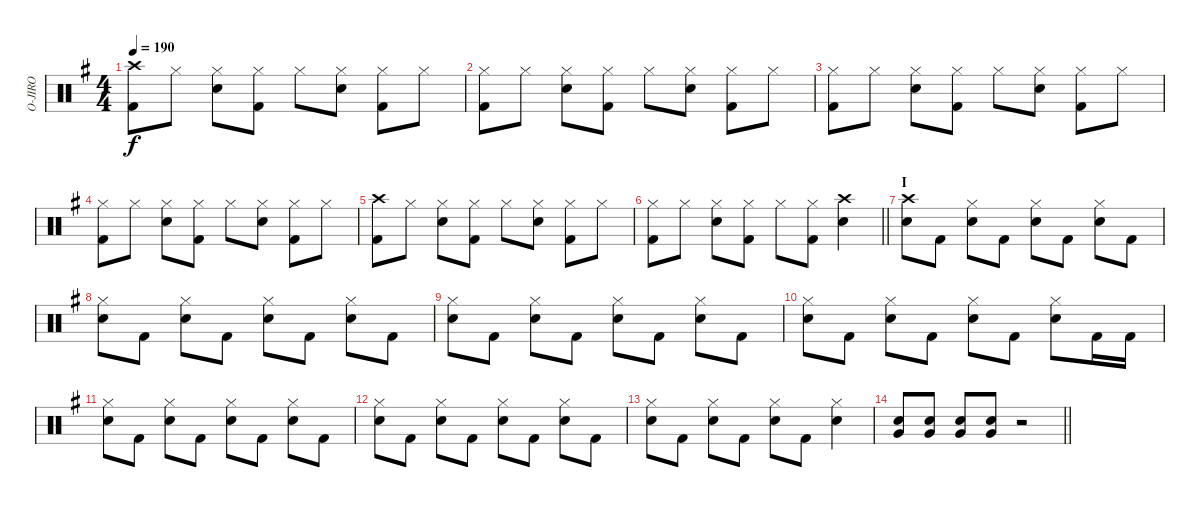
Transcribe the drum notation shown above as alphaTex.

\track ("O-JIRO" "O-JIRO") {instrument percussion}
\staff {score}
\articulation defaults
\ts (4 4)
\tempo 190
\clef neutral
\ks g
("Crash high (hit)" "Kick (hit) 2").8{dy f} "Hi-Hat (closed)".8 ("Hi-Hat (closed)" "Snare (hit) 2").8 ("Hi-Hat (closed)" "Kick (hit) 2").8 "Hi-Hat (closed)".8 ("Hi-Hat (closed)" "Snare (hit) 2").8 ("Hi-Hat (closed)" "Kick (hit) 2").8 "Hi-Hat (closed)".8 |
("Hi-Hat (closed)" "Kick (hit) 2").8 "Hi-Hat (closed)".8 ("Hi-Hat (closed)" "Snare (hit) 2").8 ("Hi-Hat (closed)" "Kick (hit) 2").8 "Hi-Hat (closed)".8 ("Hi-Hat (closed)" "Snare (hit) 2").8 ("Hi-Hat (closed)" "Kick (hit) 2").8 "Hi-Hat (closed)".8 |
("Hi-Hat (closed)" "Kick (hit) 2").8 "Hi-Hat (closed)".8 ("Hi-Hat (closed)" "Snare (hit) 2").8 ("Hi-Hat (closed)" "Kick (hit) 2").8 "Hi-Hat (closed)".8 ("Hi-Hat (closed)" "Snare (hit) 2").8 ("Hi-Hat (closed)" "Kick (hit) 2").8 "Hi-Hat (closed)".8 |
("Hi-Hat (closed)" "Kick (hit) 2").8 "Hi-Hat (closed)".8 ("Hi-Hat (closed)" "Snare (hit) 2").8 ("Hi-Hat (closed)" "Kick (hit) 2").8 "Hi-Hat (closed)".8 ("Hi-Hat (closed)" "Snare (hit) 2").8 ("Hi-Hat (closed)" "Kick (hit) 2").8 "Hi-Hat (closed)".8 |
("Crash high (hit)" "Kick (hit) 2").8 "Hi-Hat (closed)".8 ("Hi-Hat (closed)" "Snare (hit) 2").8 ("Hi-Hat (closed)" "Kick (hit) 2").8 "Hi-Hat (closed)".8 ("Hi-Hat (closed)" "Snare (hit) 2").8 ("Hi-Hat (closed)" "Kick (hit) 2").8 "Hi-Hat (closed)".8 |
\barLineRight lightlight
("Hi-Hat (closed)" "Kick (hit) 2").8 "Hi-Hat (closed)".8 ("Hi-Hat (closed)" "Snare (hit) 2").8 ("Hi-Hat (closed)" "Kick (hit) 2").8 "Hi-Hat (closed)".8 ("Hi-Hat (closed)" "Kick (hit) 2").8 ("Crash high (hit)" "Snare (hit) 2").4 |
\section ("" "I ")
("Crash high (hit)" "Snare (hit) 2").8 "Kick (hit) 2".8 ("Hi-Hat (closed)" "Snare (hit) 2").8 "Kick (hit) 2".8 ("Hi-Hat (closed)" "Snare (hit) 2").8 "Kick (hit) 2".8 ("Hi-Hat (closed)" "Snare (hit) 2").8 "Kick (hit) 2".8 |
("Hi-Hat (closed)" "Snare (hit) 2").8 "Kick (hit) 2".8 ("Hi-Hat (closed)" "Snare (hit) 2").8 "Kick (hit) 2".8 ("Hi-Hat (closed)" "Snare (hit) 2").8 "Kick (hit) 2".8 ("Hi-Hat (closed)" "Snare (hit) 2").8 "Kick (hit) 2".8 |
("Hi-Hat (closed)" "Snare (hit) 2").8 "Kick (hit) 2".8 ("Hi-Hat (closed)" "Snare (hit) 2").8 "Kick (hit) 2".8 ("Hi-Hat (closed)" "Snare (hit) 2").8 "Kick (hit) 2".8 ("Hi-Hat (closed)" "Snare (hit) 2").8 "Kick (hit) 2".8 |
("Hi-Hat (closed)" "Snare (hit) 2").8 "Kick (hit) 2".8 ("Hi-Hat (closed)" "Snare (hit) 2").8 "Kick (hit) 2".8 ("Hi-Hat (closed)" "Snare (hit) 2").8 "Kick (hit) 2".8 ("Hi-Hat (closed)" "Snare (hit) 2").8 "Kick (hit) 2".16 "Kick (hit) 2".16 |
("Hi-Hat (closed)" "Snare (hit) 2").8 "Kick (hit) 2".8 ("Hi-Hat (closed)" "Snare (hit) 2").8 "Kick (hit) 2".8 ("Hi-Hat (closed)" "Snare (hit) 2").8 "Kick (hit) 2".8 ("Hi-Hat (closed)" "Snare (hit) 2").8 "Kick (hit) 2".8 |
("Hi-Hat (closed)" "Snare (hit) 2").8 "Kick (hit) 2".8 ("Hi-Hat (closed)" "Snare (hit) 2").8 "Kick (hit) 2".8 ("Hi-Hat (closed)" "Snare (hit) 2").8 "Kick (hit) 2".8 ("Hi-Hat (closed)" "Snare (hit) 2").8 "Kick (hit) 2".8 |
("Hi-Hat (closed)" "Snare (hit) 2").8 "Kick (hit) 2".8 ("Hi-Hat (closed)" "Snare (hit) 2").8 "Kick (hit) 2".8 ("Hi-Hat (closed)" "Snare (hit) 2").8 "Kick (hit) 2".8 ("Hi-Hat (closed)" "Snare (hit) 2").4 |
\barLineRight lightlight
("Snare (hit) 2" "Very Low Tom (hit)").8 ("Snare (hit) 2" "Very Low Tom (hit)").8 ("Snare (hit) 2" "Very Low Tom (hit)").8 ("Snare (hit) 2" "Very Low Tom (hit)").8 r.2
